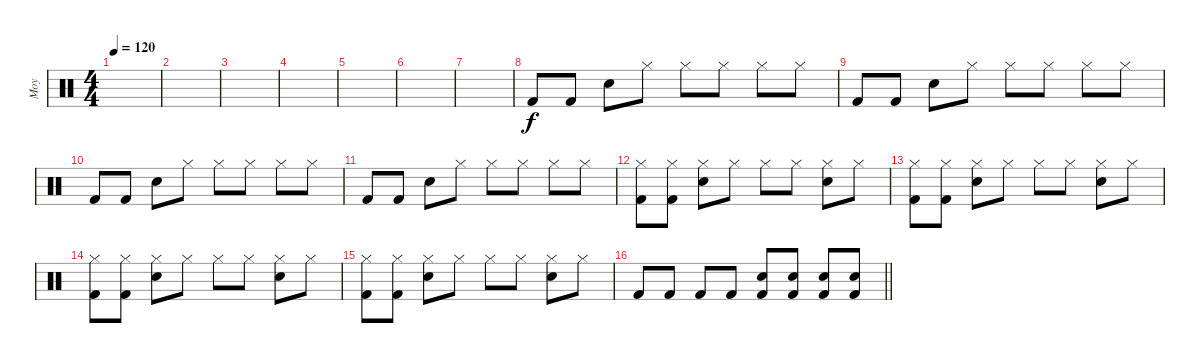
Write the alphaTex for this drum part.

\track ("Moy" "Moy") {instrument percussion}
\staff {score}
\articulation defaults
\ts (4 4)
\tempo 120
\clef neutral
\ks c
|
|
|
|
|
|
|
"Kick (hit) 2".8 "Kick (hit) 2".8 "Electric Snare (hit)".8 "Hi-Hat (closed)".8 "Hi-Hat (closed)".8 "Hi-Hat (closed)".8 "Hi-Hat (closed)".8 "Hi-Hat (closed)".8 |
"Kick (hit) 2".8 "Kick (hit) 2".8 "Electric Snare (hit)".8 "Hi-Hat (closed)".8 "Hi-Hat (closed)".8 "Hi-Hat (closed)".8 "Hi-Hat (closed)".8 "Hi-Hat (closed)".8 |
"Kick (hit) 2".8 "Kick (hit) 2".8 "Electric Snare (hit)".8 "Hi-Hat (closed)".8 "Hi-Hat (closed)".8 "Hi-Hat (closed)".8 "Hi-Hat (closed)".8 "Hi-Hat (closed)".8 |
"Kick (hit) 2".8 "Kick (hit) 2".8 "Electric Snare (hit)".8 "Hi-Hat (closed)".8 "Hi-Hat (closed)".8 "Hi-Hat (closed)".8 "Hi-Hat (closed)".8 "Hi-Hat (closed)".8 |
("Hi-Hat (closed)" "Kick (hit) 2").8 ("Hi-Hat (closed)" "Kick (hit) 2").8 ("Hi-Hat (closed)" "Electric Snare (hit)").8 "Hi-Hat (closed)".8 "Hi-Hat (closed)".8 "Hi-Hat (closed)".8 ("Hi-Hat (closed)" "Electric Snare (hit)").8 "Hi-Hat (closed)".8 |
("Hi-Hat (closed)" "Kick (hit) 2").8 ("Hi-Hat (closed)" "Kick (hit) 2").8 ("Hi-Hat (closed)" "Electric Snare (hit)").8 "Hi-Hat (closed)".8 "Hi-Hat (closed)".8 "Hi-Hat (closed)".8 ("Hi-Hat (closed)" "Electric Snare (hit)").8 "Hi-Hat (closed)".8 |
("Hi-Hat (closed)" "Kick (hit) 2").8 ("Hi-Hat (closed)" "Kick (hit) 2").8 ("Hi-Hat (closed)" "Electric Snare (hit)").8 "Hi-Hat (closed)".8 "Hi-Hat (closed)".8 "Hi-Hat (closed)".8 ("Hi-Hat (closed)" "Electric Snare (hit)").8 "Hi-Hat (closed)".8 |
("Hi-Hat (closed)" "Kick (hit) 2").8 ("Hi-Hat (closed)" "Kick (hit) 2").8 ("Hi-Hat (closed)" "Electric Snare (hit)").8 "Hi-Hat (closed)".8 "Hi-Hat (closed)".8 "Hi-Hat (closed)".8 ("Hi-Hat (closed)" "Electric Snare (hit)").8 "Hi-Hat (closed)".8 |
\barLineRight lightlight "Kick (hit) 2".8 "Kick (hit) 2".8 "Kick (hit) 2".8 "Kick (hit) 2".8
("Electric Snare (hit)" "Kick (hit) 2").8 ("Electric Snare (hit)" "Kick (hit) 2").8 ("Electric Snare (hit)" "Kick (hit) 2").8 ("Electric Snare (hit)" "Kick (hit) 2").8
